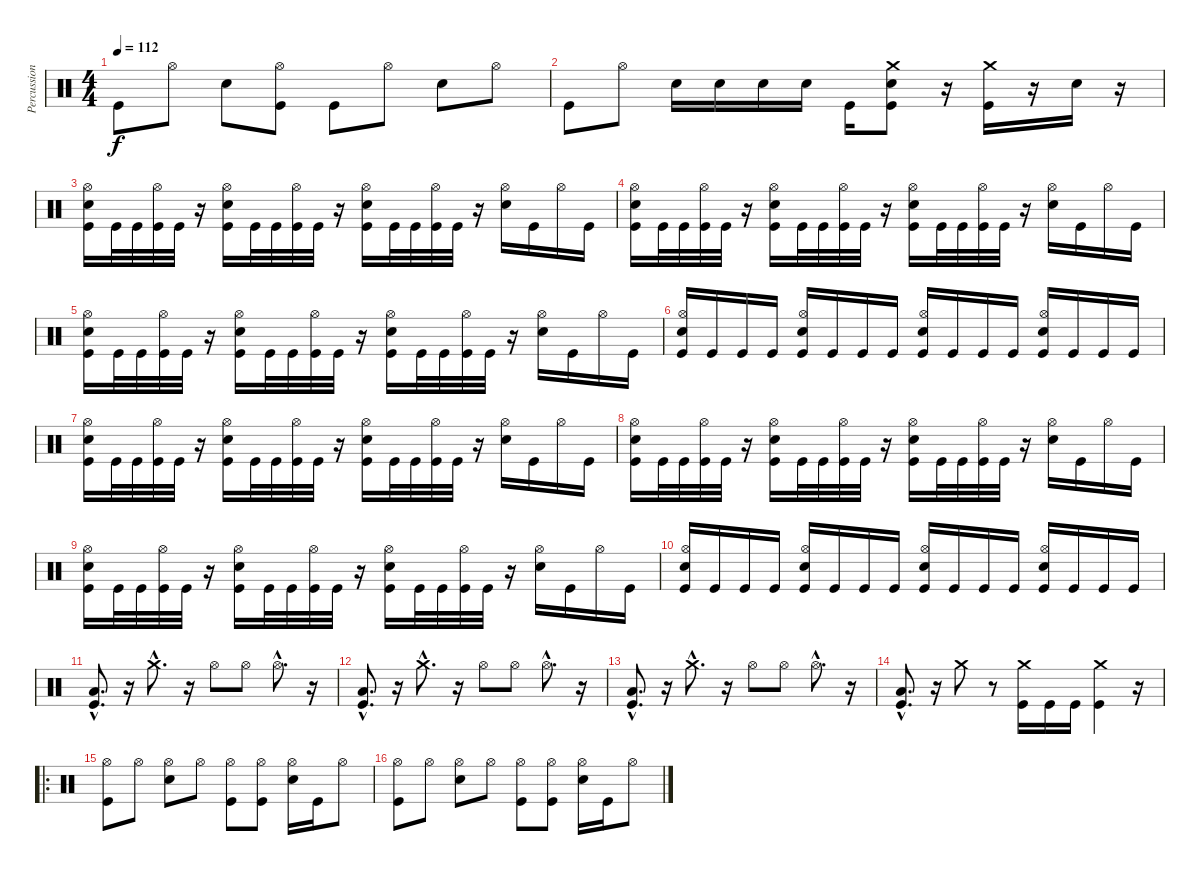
\track ("Percussion" "Percussion") {instrument percussion}
\staff {score}
\articulation defaults
\ts (4 4)
\tempo 112
\clef neutral
\ks c "Kick (hit)".8{dy f} "Hi-Hat (open)".8 "Electric Snare (hit)".8
("Hi-Hat (open)" "Kick (hit)").8 "Kick (hit)".8 "Hi-Hat (open)".8 "Electric Snare (hit)".8 "Hi-Hat (open)".8 |
"Kick (hit)".8 "Hi-Hat (open)".8 "Electric Snare (hit)".16 "Electric Snare (hit)".16 "Electric Snare (hit)".16 "Electric Snare (hit)".16 "Kick (hit)".16 ("Electric Snare (hit)" "Kick (hit)" "Crash medium (hit)").8 r.16 ("Kick (hit)" "Crash medium (hit)").16 r.16 "Electric Snare (hit)".16 r.16 |
("Hi-Hat (open)" "Electric Snare (hit)" "Kick (hit)").16 "Kick (hit)".32 "Kick (hit)".32 ("Hi-Hat (open)" "Kick (hit)").32 "Kick (hit)".32 r.16 ("Hi-Hat (open)" "Electric Snare (hit)" "Kick (hit)").16 "Kick (hit)".32 "Kick (hit)".32 ("Hi-Hat (open)" "Kick (hit)").32 "Kick (hit)".32 r.16 ("Hi-Hat (open)" "Electric Snare (hit)" "Kick (hit)").16 "Kick (hit)".32 "Kick (hit)".32 ("Hi-Hat (open)" "Kick (hit)").32 "Kick (hit)".32 r.16 ("Hi-Hat (open)" "Electric Snare (hit)").16 "Kick (hit)".16 "Hi-Hat (open)".16 "Kick (hit)".16 |
("Hi-Hat (open)" "Electric Snare (hit)" "Kick (hit)").16 "Kick (hit)".32 "Kick (hit)".32 ("Hi-Hat (open)" "Kick (hit)").32 "Kick (hit)".32 r.16 ("Hi-Hat (open)" "Electric Snare (hit)" "Kick (hit)").16 "Kick (hit)".32 "Kick (hit)".32 ("Hi-Hat (open)" "Kick (hit)").32 "Kick (hit)".32 r.16 ("Hi-Hat (open)" "Electric Snare (hit)" "Kick (hit)").16 "Kick (hit)".32 "Kick (hit)".32 ("Hi-Hat (open)" "Kick (hit)").32 "Kick (hit)".32 r.16 ("Hi-Hat (open)" "Electric Snare (hit)").16 "Kick (hit)".16 "Hi-Hat (open)".16 "Kick (hit)".16 |
("Hi-Hat (open)" "Electric Snare (hit)" "Kick (hit)").16 "Kick (hit)".32 "Kick (hit)".32 ("Hi-Hat (open)" "Kick (hit)").32 "Kick (hit)".32 r.16 ("Hi-Hat (open)" "Electric Snare (hit)" "Kick (hit)").16 "Kick (hit)".32 "Kick (hit)".32 ("Hi-Hat (open)" "Kick (hit)").32 "Kick (hit)".32 r.16 ("Hi-Hat (open)" "Electric Snare (hit)" "Kick (hit)").16 "Kick (hit)".32 "Kick (hit)".32 ("Hi-Hat (open)" "Kick (hit)").32 "Kick (hit)".32 r.16 ("Hi-Hat (open)" "Electric Snare (hit)").16 "Kick (hit)".16 "Hi-Hat (open)".16 "Kick (hit)".16 |
("Hi-Hat (open)" "Electric Snare (hit)" "Kick (hit)").16 "Kick (hit)".16 "Kick (hit)".16 "Kick (hit)".16 ("Hi-Hat (open)" "Electric Snare (hit)" "Kick (hit)").16 "Kick (hit)".16 "Kick (hit)".16 "Kick (hit)".16 ("Hi-Hat (open)" "Electric Snare (hit)" "Kick (hit)").16 "Kick (hit)".16 "Kick (hit)".16 "Kick (hit)".16 ("Hi-Hat (open)" "Electric Snare (hit)" "Kick (hit)").16 "Kick (hit)".16 "Kick (hit)".16 "Kick (hit)".16 |
("Hi-Hat (open)" "Electric Snare (hit)" "Kick (hit)").16 "Kick (hit)".32 "Kick (hit)".32 ("Hi-Hat (open)" "Kick (hit)").32 "Kick (hit)".32 r.16 ("Hi-Hat (open)" "Electric Snare (hit)" "Kick (hit)").16 "Kick (hit)".32 "Kick (hit)".32 ("Hi-Hat (open)" "Kick (hit)").32 "Kick (hit)".32 r.16 ("Hi-Hat (open)" "Electric Snare (hit)" "Kick (hit)").16 "Kick (hit)".32 "Kick (hit)".32 ("Hi-Hat (open)" "Kick (hit)").32 "Kick (hit)".32 r.16 ("Hi-Hat (open)" "Electric Snare (hit)").16 "Kick (hit)".16 "Hi-Hat (open)".16 "Kick (hit)".16 |
("Hi-Hat (open)" "Electric Snare (hit)" "Kick (hit)").16 "Kick (hit)".32 "Kick (hit)".32 ("Hi-Hat (open)" "Kick (hit)").32 "Kick (hit)".32 r.16 ("Hi-Hat (open)" "Electric Snare (hit)" "Kick (hit)").16 "Kick (hit)".32 "Kick (hit)".32 ("Hi-Hat (open)" "Kick (hit)").32 "Kick (hit)".32 r.16 ("Hi-Hat (open)" "Electric Snare (hit)" "Kick (hit)").16 "Kick (hit)".32 "Kick (hit)".32 ("Hi-Hat (open)" "Kick (hit)").32 "Kick (hit)".32 r.16 ("Hi-Hat (open)" "Electric Snare (hit)").16 "Kick (hit)".16 "Hi-Hat (open)".16 "Kick (hit)".16 |
("Hi-Hat (open)" "Electric Snare (hit)" "Kick (hit)").16 "Kick (hit)".32 "Kick (hit)".32 ("Hi-Hat (open)" "Kick (hit)").32 "Kick (hit)".32 r.16 ("Hi-Hat (open)" "Electric Snare (hit)" "Kick (hit)").16 "Kick (hit)".32 "Kick (hit)".32 ("Hi-Hat (open)" "Kick (hit)").32 "Kick (hit)".32 r.16 ("Hi-Hat (open)" "Electric Snare (hit)" "Kick (hit)").16 "Kick (hit)".32 "Kick (hit)".32 ("Hi-Hat (open)" "Kick (hit)").32 "Kick (hit)".32 r.16 ("Hi-Hat (open)" "Electric Snare (hit)").16 "Kick (hit)".16 "Hi-Hat (open)".16 "Kick (hit)".16 |
("Hi-Hat (open)" "Electric Snare (hit)" "Kick (hit)").16 "Kick (hit)".16 "Kick (hit)".16 "Kick (hit)".16 ("Hi-Hat (open)" "Electric Snare (hit)" "Kick (hit)").16 "Kick (hit)".16 "Kick (hit)".16 "Kick (hit)".16 ("Hi-Hat (open)" "Electric Snare (hit)" "Kick (hit)").16 "Kick (hit)".16 "Kick (hit)".16 "Kick (hit)".16 ("Hi-Hat (open)" "Electric Snare (hit)" "Kick (hit)").16 "Kick (hit)".16 "Kick (hit)".16 "Kick (hit)".16 |
("Kick (hit)"{hac} "Low Floor Tom (hit)"{hac}).8{d} r.16 "Crash medium (hit)"{hac}.8{d} r.16 "Hi-Hat (open)".8 "Hi-Hat (open)".8 "Hi-Hat (open)"{hac}.8{d} r.16 |
("Kick (hit)"{hac} "Low Floor Tom (hit)"{hac}).8{d} r.16 "Crash medium (hit)"{hac}.8{d} r.16 "Hi-Hat (open)".8 "Hi-Hat (open)".8 "Hi-Hat (open)"{hac}.8{d} r.16 |
("Kick (hit)"{hac} "Low Floor Tom (hit)"{hac}).8{d} r.16 "Crash medium (hit)"{hac}.8{d} r.16 "Hi-Hat (open)".8 "Hi-Hat (open)".8 "Hi-Hat (open)"{hac}.8{d} r.16 |
("Kick (hit)"{hac} "Low Floor Tom (hit)"{hac}).8{d} r.16 "Crash medium (hit)".8 r.8 ("Kick (hit)" "Crash medium (hit)").16 "Kick (hit)".16 "Kick (hit)".16 ("Kick (hit)" "Crash medium (hit)").4 r.16 |
\ro
("Hi-Hat (open)" "Kick (hit)").8 "Hi-Hat (open)".8 ("Hi-Hat (open)" "Electric Snare (hit)").8 "Hi-Hat (open)".8 ("Hi-Hat (open)" "Kick (hit)").8 ("Hi-Hat (open)" "Kick (hit)").8 ("Hi-Hat (open)" "Electric Snare (hit)").16 "Kick (hit)".16 "Hi-Hat (open)".8 |
("Hi-Hat (open)" "Kick (hit)").8 "Hi-Hat (open)".8 ("Hi-Hat (open)" "Electric Snare (hit)").8 "Hi-Hat (open)".8 ("Hi-Hat (open)" "Kick (hit)").8 ("Hi-Hat (open)" "Kick (hit)").8 ("Hi-Hat (open)" "Electric Snare (hit)").16 "Kick (hit)".16 "Hi-Hat (open)".8
